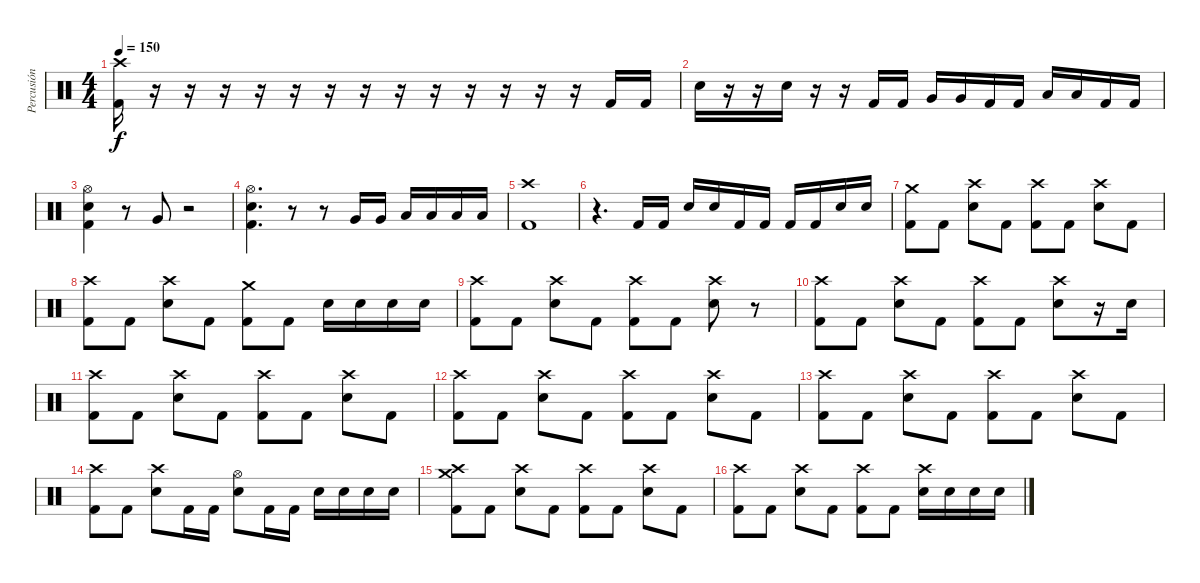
\track ("Percusión" "Percusión") {instrument percussion}
\staff {score}
\articulation defaults
\ts (4 4)
\tempo 150
\clef neutral
\ks c
("Kick (hit) 2" "Crash high (hit)").16{dy f} r.16 r.16 r.16 r.16 r.16 r.16 r.16 r.16 r.16 r.16 r.16 r.16 r.16 "Kick (hit) 2".16 "Kick (hit) 2".16 |
"Electric Snare (hit)".16 r.16 r.16 "Electric Snare (hit)".16 r.16 r.16 "Kick (hit) 2".16 "Kick (hit) 2".16 "Very Low Tom (hit)".16 "Very Low Tom (hit)".16 "Kick (hit) 2".16 "Kick (hit) 2".16 "Low Floor Tom (hit)".16 "Low Floor Tom (hit)".16 "Kick (hit) 2".16 "Kick (hit) 2".16 |
("Electric Snare (hit)" "Kick (hit) 2" "Hi-Hat (open)").4 r.8 "Very Low Tom (hit)".8 r.2 |
("Electric Snare (hit)" "Kick (hit) 2" "Hi-Hat (open)").4{d} r.8 r.8 "Very Low Tom (hit)".16 "Very Low Tom (hit)".16 "Low Floor Tom (hit)".16 "Low Floor Tom (hit)".16 "Low Floor Tom (hit)".16 "Low Floor Tom (hit)".16 |
("Kick (hit) 2" "Crash high (hit)").1 |
r.4{d} "Kick (hit) 2".16 "Kick (hit) 2".16 "Electric Snare (hit)".16 "Electric Snare (hit)".16 "Kick (hit) 2".16 "Kick (hit) 2".16 "Kick (hit) 2".16 "Kick (hit) 2".16 "Electric Snare (hit)".16 "Electric Snare (hit)".16 |
("Kick (hit) 2" "Crash medium (hit)").8 "Kick (hit) 2".8 ("Electric Snare (hit)" "Crash high (hit)").8 "Kick (hit) 2".8 ("Kick (hit) 2" "Crash high (hit)").8 "Kick (hit) 2".8 ("Electric Snare (hit)" "Crash high (hit)").8 "Kick (hit) 2".8 |
("Kick (hit) 2" "Crash high (hit)").8 "Kick (hit) 2".8 ("Electric Snare (hit)" "Crash high (hit)").8 "Kick (hit) 2".8 ("Kick (hit) 2" "Crash medium (hit)").8 "Kick (hit) 2".8 "Electric Snare (hit)".16 "Electric Snare (hit)".16 "Electric Snare (hit)".16 "Electric Snare (hit)".16 |
("Kick (hit) 2" "Crash high (hit)").8 "Kick (hit) 2".8 ("Electric Snare (hit)" "Crash high (hit)").8 "Kick (hit) 2".8 ("Kick (hit) 2" "Crash high (hit)").8 "Kick (hit) 2".8 ("Electric Snare (hit)" "Crash high (hit)").8 r.8 |
("Kick (hit) 2" "Crash high (hit)").8 "Kick (hit) 2".8 ("Electric Snare (hit)" "Crash high (hit)").8 "Kick (hit) 2".8 ("Kick (hit) 2" "Crash high (hit)").8 "Kick (hit) 2".8 ("Electric Snare (hit)" "Crash high (hit)").8 r.16 "Electric Snare (hit)".16 |
("Kick (hit) 2" "Crash high (hit)").8 "Kick (hit) 2".8 ("Electric Snare (hit)" "Crash high (hit)").8 "Kick (hit) 2".8 ("Kick (hit) 2" "Crash high (hit)").8 "Kick (hit) 2".8 ("Electric Snare (hit)" "Crash high (hit)").8 "Kick (hit) 2".8 |
("Kick (hit) 2" "Crash high (hit)").8 "Kick (hit) 2".8 ("Electric Snare (hit)" "Crash high (hit)").8 "Kick (hit) 2".8 ("Kick (hit) 2" "Crash high (hit)").8 "Kick (hit) 2".8 ("Electric Snare (hit)" "Crash high (hit)").8 "Kick (hit) 2".8 |
("Kick (hit) 2" "Crash high (hit)").8 "Kick (hit) 2".8 ("Electric Snare (hit)" "Crash high (hit)").8 "Kick (hit) 2".8 ("Kick (hit) 2" "Crash high (hit)").8 "Kick (hit) 2".8 ("Electric Snare (hit)" "Crash high (hit)").8 "Kick (hit) 2".8 |
("Kick (hit) 2" "Crash high (hit)").8 "Kick (hit) 2".8 ("Electric Snare (hit)" "Crash high (hit)").8 "Kick (hit) 2".16 "Kick (hit) 2".16 ("Electric Snare (hit)" "Hi-Hat (open)").8 "Kick (hit) 2".16 "Kick (hit) 2".16 "Electric Snare (hit)".16 "Electric Snare (hit)".16 "Electric Snare (hit)".16 "Electric Snare (hit)".16 |
("Kick (hit) 2" "Crash medium (hit)" "Crash high (hit)").8 "Kick (hit) 2".8 ("Electric Snare (hit)" "Crash high (hit)").8 "Kick (hit) 2".8 ("Kick (hit) 2" "Crash high (hit)").8 "Kick (hit) 2".8 ("Electric Snare (hit)" "Crash high (hit)").8 "Kick (hit) 2".8 |
("Kick (hit) 2" "Crash high (hit)").8 "Kick (hit) 2".8 ("Electric Snare (hit)" "Crash high (hit)").8 "Kick (hit) 2".8 ("Kick (hit) 2" "Crash high (hit)").8 "Kick (hit) 2".8 ("Electric Snare (hit)" "Crash high (hit)").16 "Electric Snare (hit)".16 "Electric Snare (hit)".16 "Electric Snare (hit)".16
